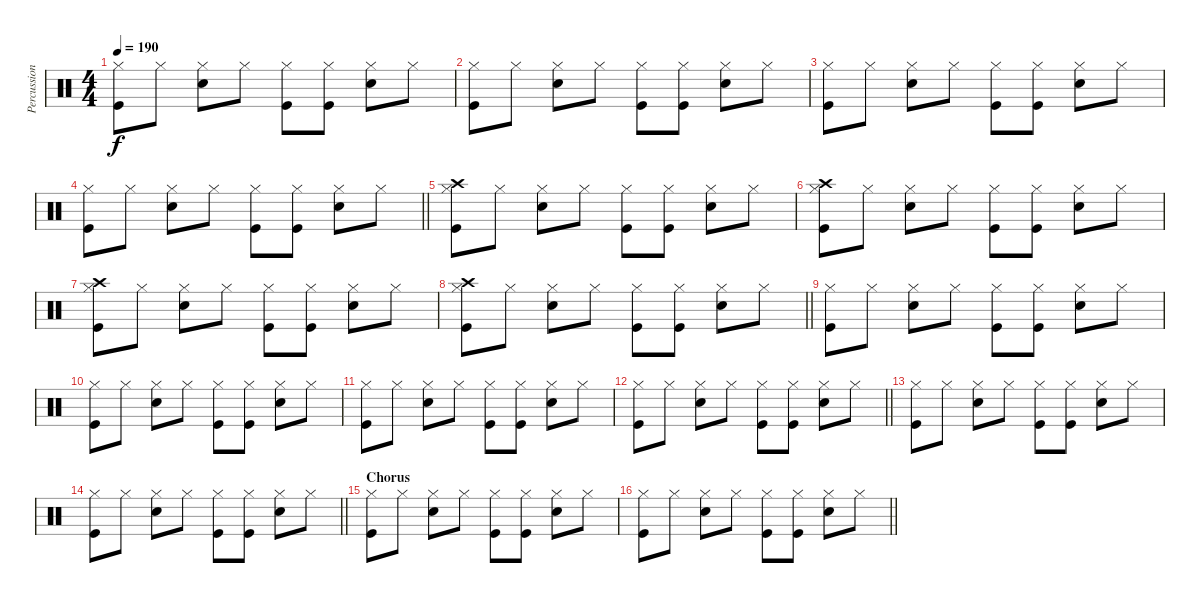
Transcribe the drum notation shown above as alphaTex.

\track ("Percussion" "Percussion") {instrument percussion}
\staff {score}
\articulation defaults
\ts (4 4)
\tempo 190
\clef neutral
\ks c
("Hi-Hat (closed)" "Kick (hit)").8{dy f} "Hi-Hat (closed)".8 ("Snare (hit) 2" "Hi-Hat (closed)").8 "Hi-Hat (closed)".8 ("Hi-Hat (closed)" "Kick (hit)").8 ("Hi-Hat (closed)" "Kick (hit)").8 ("Snare (hit) 2" "Hi-Hat (closed)").8 "Hi-Hat (closed)".8 |
("Hi-Hat (closed)" "Kick (hit)").8 "Hi-Hat (closed)".8 ("Snare (hit) 2" "Hi-Hat (closed)").8 "Hi-Hat (closed)".8 ("Hi-Hat (closed)" "Kick (hit)").8 ("Hi-Hat (closed)" "Kick (hit)").8 ("Snare (hit) 2" "Hi-Hat (closed)").8 "Hi-Hat (closed)".8 |
("Hi-Hat (closed)" "Kick (hit)").8 "Hi-Hat (closed)".8 ("Snare (hit) 2" "Hi-Hat (closed)").8 "Hi-Hat (closed)".8 ("Hi-Hat (closed)" "Kick (hit)").8 ("Hi-Hat (closed)" "Kick (hit)").8 ("Snare (hit) 2" "Hi-Hat (closed)").8 "Hi-Hat (closed)".8 |
\barLineRight lightlight
("Hi-Hat (closed)" "Kick (hit)").8 "Hi-Hat (closed)".8 ("Snare (hit) 2" "Hi-Hat (closed)").8 "Hi-Hat (closed)".8 ("Hi-Hat (closed)" "Kick (hit)").8 ("Hi-Hat (closed)" "Kick (hit)").8 ("Snare (hit) 2" "Hi-Hat (closed)").8 "Hi-Hat (closed)".8 |
("Crash high (hit)" "Hi-Hat (closed)" "Kick (hit)").8 "Hi-Hat (closed)".8 ("Snare (hit) 2" "Hi-Hat (closed)").8 "Hi-Hat (closed)".8 ("Hi-Hat (closed)" "Kick (hit)").8 ("Hi-Hat (closed)" "Kick (hit)").8 ("Snare (hit) 2" "Hi-Hat (closed)").8 "Hi-Hat (closed)".8 |
("Crash high (hit)" "Hi-Hat (closed)" "Kick (hit)").8 "Hi-Hat (closed)".8 ("Snare (hit) 2" "Hi-Hat (closed)").8 "Hi-Hat (closed)".8 ("Hi-Hat (closed)" "Kick (hit)").8 ("Hi-Hat (closed)" "Kick (hit)").8 ("Snare (hit) 2" "Hi-Hat (closed)").8 "Hi-Hat (closed)".8 |
("Crash high (hit)" "Hi-Hat (closed)" "Kick (hit)").8 "Hi-Hat (closed)".8 ("Snare (hit) 2" "Hi-Hat (closed)").8 "Hi-Hat (closed)".8 ("Hi-Hat (closed)" "Kick (hit)").8 ("Hi-Hat (closed)" "Kick (hit)").8 ("Snare (hit) 2" "Hi-Hat (closed)").8 "Hi-Hat (closed)".8 |
\barLineRight lightlight
("Crash high (hit)" "Hi-Hat (closed)" "Kick (hit)").8 "Hi-Hat (closed)".8 ("Snare (hit) 2" "Hi-Hat (closed)").8 "Hi-Hat (closed)".8 ("Hi-Hat (closed)" "Kick (hit)").8 ("Hi-Hat (closed)" "Kick (hit)").8 ("Snare (hit) 2" "Hi-Hat (closed)").8 "Hi-Hat (closed)".8 |
("Hi-Hat (closed)" "Kick (hit)").8 "Hi-Hat (closed)".8 ("Snare (hit) 2" "Hi-Hat (closed)").8 "Hi-Hat (closed)".8 ("Hi-Hat (closed)" "Kick (hit)").8 ("Hi-Hat (closed)" "Kick (hit)").8 ("Snare (hit) 2" "Hi-Hat (closed)").8 "Hi-Hat (closed)".8 |
("Hi-Hat (closed)" "Kick (hit)").8 "Hi-Hat (closed)".8 ("Snare (hit) 2" "Hi-Hat (closed)").8 "Hi-Hat (closed)".8 ("Hi-Hat (closed)" "Kick (hit)").8 ("Hi-Hat (closed)" "Kick (hit)").8 ("Snare (hit) 2" "Hi-Hat (closed)").8 "Hi-Hat (closed)".8 |
("Hi-Hat (closed)" "Kick (hit)").8 "Hi-Hat (closed)".8 ("Snare (hit) 2" "Hi-Hat (closed)").8 "Hi-Hat (closed)".8 ("Hi-Hat (closed)" "Kick (hit)").8 ("Hi-Hat (closed)" "Kick (hit)").8 ("Snare (hit) 2" "Hi-Hat (closed)").8 "Hi-Hat (closed)".8 |
\barLineRight lightlight
("Hi-Hat (closed)" "Kick (hit)").8 "Hi-Hat (closed)".8 ("Snare (hit) 2" "Hi-Hat (closed)").8 "Hi-Hat (closed)".8 ("Hi-Hat (closed)" "Kick (hit)").8 ("Hi-Hat (closed)" "Kick (hit)").8 ("Snare (hit) 2" "Hi-Hat (closed)").8 "Hi-Hat (closed)".8 |
("Hi-Hat (closed)" "Kick (hit)").8 "Hi-Hat (closed)".8 ("Snare (hit) 2" "Hi-Hat (closed)").8 "Hi-Hat (closed)".8 ("Hi-Hat (closed)" "Kick (hit)").8 ("Hi-Hat (closed)" "Kick (hit)").8 ("Snare (hit) 2" "Hi-Hat (closed)").8 "Hi-Hat (closed)".8 |
\barLineRight lightlight
("Hi-Hat (closed)" "Kick (hit)").8 "Hi-Hat (closed)".8 ("Snare (hit) 2" "Hi-Hat (closed)").8 "Hi-Hat (closed)".8 ("Hi-Hat (closed)" "Kick (hit)").8 ("Hi-Hat (closed)" "Kick (hit)").8 ("Snare (hit) 2" "Hi-Hat (closed)").8 "Hi-Hat (closed)".8 |
\section ("" "Chorus")
("Hi-Hat (closed)" "Kick (hit)").8 "Hi-Hat (closed)".8 ("Snare (hit) 2" "Hi-Hat (closed)").8 "Hi-Hat (closed)".8 ("Hi-Hat (closed)" "Kick (hit)").8 ("Hi-Hat (closed)" "Kick (hit)").8 ("Snare (hit) 2" "Hi-Hat (closed)").8 "Hi-Hat (closed)".8 |
\barLineRight lightlight
("Hi-Hat (closed)" "Kick (hit)").8 "Hi-Hat (closed)".8 ("Snare (hit) 2" "Hi-Hat (closed)").8 "Hi-Hat (closed)".8 ("Hi-Hat (closed)" "Kick (hit)").8 ("Hi-Hat (closed)" "Kick (hit)").8 ("Snare (hit) 2" "Hi-Hat (closed)").8 "Hi-Hat (closed)".8
